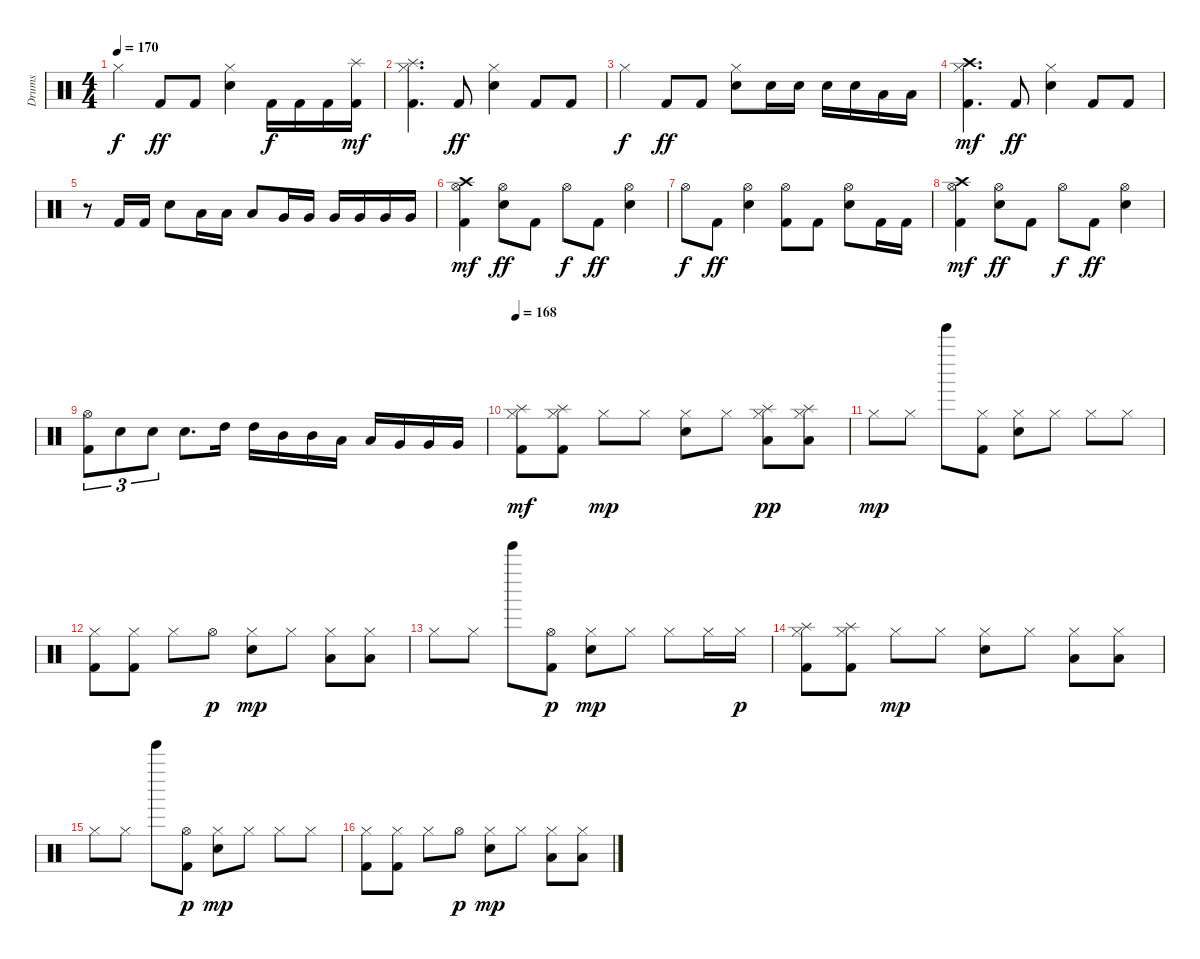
\track ("Drums" "Drums") {instrument percussion}
\staff {score}
\articulation defaults
\ts (4 4)
\tempo 170
\clef neutral
\ks c "Hi-Hat (closed)".4{dy f} "Kick (hit) 2".8{dy ff} "Kick (hit) 2".8
("Electric Snare (hit)" "Hi-Hat (closed)").4 "Kick (hit) 2".16{dy f} "Kick (hit) 2".16 "Kick (hit) 2".16 ("Kick (hit) 2" "Splash (hit)").16{dy mf} |
("Kick (hit) 2" "Hi-Hat (closed)" "Splash (hit)").4{d} "Kick (hit) 2".8{dy ff} ("Electric Snare (hit)" "Hi-Hat (closed)").4 "Kick (hit) 2".8 "Kick (hit) 2".8 |
"Hi-Hat (closed)".4{dy f} "Kick (hit) 2".8{dy ff} "Kick (hit) 2".8 ("Electric Snare (hit)" "Hi-Hat (closed)").8 "Electric Snare (hit)".16 "Electric Snare (hit)".16 "Electric Snare (hit)".16 "Electric Snare (hit)".16 "Low Tom (hit)".16 "Low Tom (hit)".16 |
("Kick (hit) 2" "Hi-Hat (closed)" "Crash high (hit)").4{d dy mf} "Kick (hit) 2".8{dy ff} ("Electric Snare (hit)" "Hi-Hat (closed)").4 "Kick (hit) 2".8 "Kick (hit) 2".8 |
r.8 "Kick (hit) 2".16 "Kick (hit) 2".16 "Electric Snare (hit)".8 "Low Tom (hit)".16 "Low Tom (hit)".16 "Low Tom (hit)".8 "Very Low Tom (hit)".16 "Very Low Tom (hit)".16 "Very Low Tom (hit)".16 "Very Low Tom (hit)".16 "Very Low Tom (hit)".16 "Very Low Tom (hit)".16 |
("Kick (hit) 2" "Hi-Hat (open)" "Crash high (hit)").4{dy mf} ("Electric Snare (hit)" "Hi-Hat (open)").8{dy ff} "Kick (hit) 2".8 "Hi-Hat (open)".8{dy f} "Kick (hit) 2".8{dy ff} ("Electric Snare (hit)" "Hi-Hat (open)").4 |
"Hi-Hat (open)".8{dy f} "Kick (hit) 2".8{dy ff} ("Electric Snare (hit)" "Hi-Hat (open)").4 ("Kick (hit) 2" "Hi-Hat (open)").8 "Kick (hit) 2".8 ("Electric Snare (hit)" "Hi-Hat (open)").8 "Kick (hit) 2".16 "Kick (hit) 2".16 |
("Kick (hit) 2" "Hi-Hat (open)" "Crash high (hit)").4{dy mf} ("Electric Snare (hit)" "Hi-Hat (open)").8{dy ff} "Kick (hit) 2".8 "Hi-Hat (open)".8{dy f} "Kick (hit) 2".8{dy ff} ("Electric Snare (hit)" "Hi-Hat (open)").4 |
("Kick (hit) 2" "Hi-Hat (open)").8{tu (3 2)} "Electric Snare (hit)".8{tu (3 2)} "Electric Snare (hit)".8{tu (3 2)} "Electric Snare (hit)".8{d} "High Tom (hit)".16 "High Tom (hit)".16 "Mid Tom (hit)".16 "Mid Tom (hit)".16 "Low Tom (hit)".16 "Low Tom (hit)".16 "Very Low Tom (hit)".16 "Very Low Tom (hit)".16 "Very Low Tom (hit)".16 |
\tempo 168
("Kick (hit) 2" "Hi-Hat (closed)" "Splash (hit)").8{dy mf} ("Kick (hit) 2" "Hi-Hat (closed)" "Splash (hit)").8 "Hi-Hat (closed)".8{dy mp} "Hi-Hat (closed)".8 ("Electric Snare (hit)" "Hi-Hat (closed)").8 "Hi-Hat (closed)".8 ("Low Tom (hit)" "Hi-Hat (closed)" "Splash (hit)").8{dy pp} ("Low Tom (hit)" "Hi-Hat (closed)" "Splash (hit)").8 |
"Hi-Hat (closed)".8{dy mp} "Hi-Hat (closed)".8 "Tinkle Bell (hit)".8 ("Kick (hit) 2" "Hi-Hat (closed)").8 ("Electric Snare (hit)" "Hi-Hat (closed)").8 "Hi-Hat (closed)".8 "Hi-Hat (closed)".8 "Hi-Hat (closed)".8 |
("Kick (hit) 2" "Hi-Hat (closed)").8 ("Kick (hit) 2" "Hi-Hat (closed)").8 "Hi-Hat (closed)".8 "Hi-Hat (open)".8{dy p} ("Electric Snare (hit)" "Hi-Hat (closed)").8{dy mp} "Hi-Hat (closed)".8 ("Low Tom (hit)" "Hi-Hat (closed)").8 ("Low Tom (hit)" "Hi-Hat (closed)").8 |
"Hi-Hat (closed)".8 "Hi-Hat (closed)".8 "Tinkle Bell (hit)".8 ("Kick (hit) 2" "Hi-Hat (open)").8{dy p} ("Electric Snare (hit)" "Hi-Hat (closed)").8{dy mp} "Hi-Hat (closed)".8 "Hi-Hat (closed)".8 "Hi-Hat (closed)".16 "Hi-Hat (closed)".16{dy p} |
("Kick (hit) 2" "Hi-Hat (closed)" "Splash (hit)").8 ("Kick (hit) 2" "Hi-Hat (closed)" "Splash (hit)").8 "Hi-Hat (closed)".8{dy mp} "Hi-Hat (closed)".8 ("Electric Snare (hit)" "Hi-Hat (closed)").8 "Hi-Hat (closed)".8 ("Low Tom (hit)" "Hi-Hat (closed)").8 ("Low Tom (hit)" "Hi-Hat (closed)").8 |
"Hi-Hat (closed)".8 "Hi-Hat (closed)".8 "Tinkle Bell (hit)".8 ("Kick (hit) 2" "Hi-Hat (open)").8{dy p} ("Electric Snare (hit)" "Hi-Hat (closed)").8{dy mp} "Hi-Hat (closed)".8 "Hi-Hat (closed)".8 "Hi-Hat (closed)".8 |
("Kick (hit) 2" "Hi-Hat (closed)").8 ("Kick (hit) 2" "Hi-Hat (closed)").8 "Hi-Hat (closed)".8 "Hi-Hat (open)".8{dy p} ("Electric Snare (hit)" "Hi-Hat (closed)").8{dy mp} "Hi-Hat (closed)".8 ("Low Tom (hit)" "Hi-Hat (closed)").8 ("Low Tom (hit)" "Hi-Hat (closed)").8
